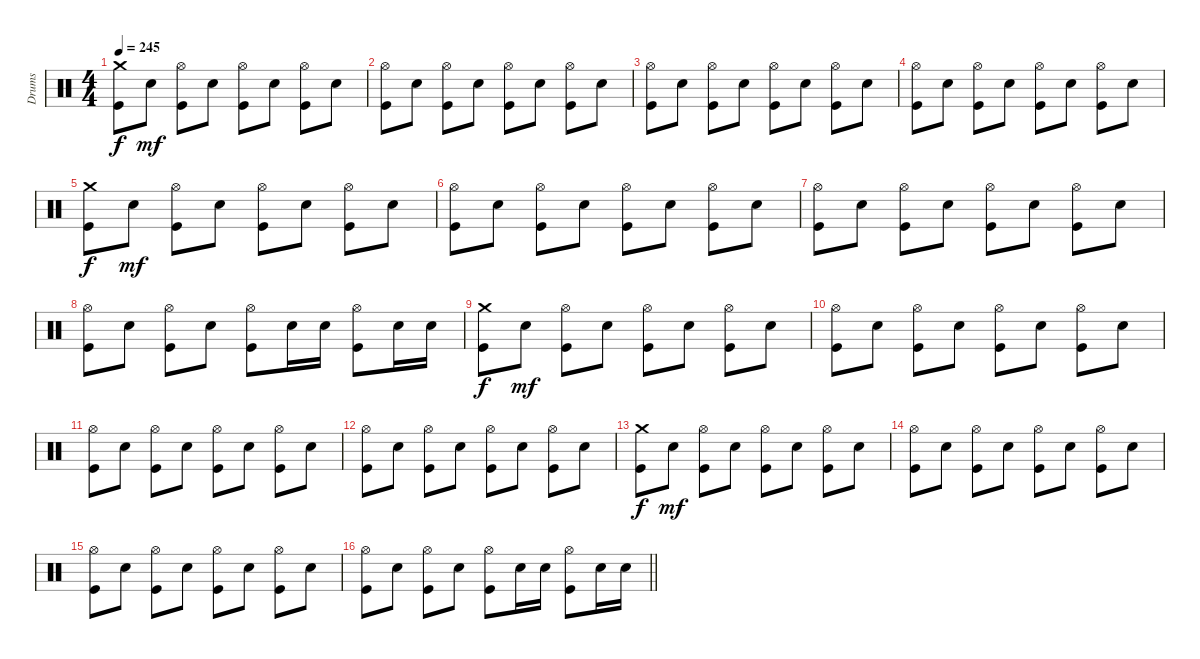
\track ("Drums" "Drums") {instrument percussion}
\staff {score}
\articulation defaults
\ts (4 4)
\tempo 245
\clef neutral
\ks c
("Crash medium (hit)" "Kick (hit)").8{dy f} "Snare (hit) 2".8{dy mf} ("Hi-Hat (open)" "Kick (hit)").8 "Snare (hit) 2".8 ("Hi-Hat (open)" "Kick (hit)").8 "Snare (hit) 2".8 ("Hi-Hat (open)" "Kick (hit)").8 "Snare (hit) 2".8 |
("Hi-Hat (open)" "Kick (hit)").8 "Snare (hit) 2".8 ("Hi-Hat (open)" "Kick (hit)").8 "Snare (hit) 2".8 ("Hi-Hat (open)" "Kick (hit)").8 "Snare (hit) 2".8 ("Hi-Hat (open)" "Kick (hit)").8 "Snare (hit) 2".8 |
("Hi-Hat (open)" "Kick (hit)").8 "Snare (hit) 2".8 ("Hi-Hat (open)" "Kick (hit)").8 "Snare (hit) 2".8 ("Hi-Hat (open)" "Kick (hit)").8 "Snare (hit) 2".8 ("Hi-Hat (open)" "Kick (hit)").8 "Snare (hit) 2".8 |
("Hi-Hat (open)" "Kick (hit)").8 "Snare (hit) 2".8 ("Hi-Hat (open)" "Kick (hit)").8 "Snare (hit) 2".8 ("Hi-Hat (open)" "Kick (hit)").8 "Snare (hit) 2".8 ("Hi-Hat (open)" "Kick (hit)").8 "Snare (hit) 2".8 |
("Crash medium (hit)" "Kick (hit)").8{dy f} "Snare (hit) 2".8{dy mf} ("Hi-Hat (open)" "Kick (hit)").8 "Snare (hit) 2".8 ("Hi-Hat (open)" "Kick (hit)").8 "Snare (hit) 2".8 ("Hi-Hat (open)" "Kick (hit)").8 "Snare (hit) 2".8 |
("Hi-Hat (open)" "Kick (hit)").8 "Snare (hit) 2".8 ("Hi-Hat (open)" "Kick (hit)").8 "Snare (hit) 2".8 ("Hi-Hat (open)" "Kick (hit)").8 "Snare (hit) 2".8 ("Hi-Hat (open)" "Kick (hit)").8 "Snare (hit) 2".8 |
("Hi-Hat (open)" "Kick (hit)").8 "Snare (hit) 2".8 ("Hi-Hat (open)" "Kick (hit)").8 "Snare (hit) 2".8 ("Hi-Hat (open)" "Kick (hit)").8 "Snare (hit) 2".8 ("Hi-Hat (open)" "Kick (hit)").8 "Snare (hit) 2".8 |
("Hi-Hat (open)" "Kick (hit)").8 "Snare (hit) 2".8 ("Hi-Hat (open)" "Kick (hit)").8 "Snare (hit) 2".8 ("Hi-Hat (open)" "Kick (hit)").8 "Snare (hit) 2".16 "Snare (hit) 2".16 ("Hi-Hat (open)" "Kick (hit)").8 "Snare (hit) 2".16 "Snare (hit) 2".16 |
("Crash medium (hit)" "Kick (hit)").8{dy f} "Snare (hit) 2".8{dy mf} ("Hi-Hat (open)" "Kick (hit)").8 "Snare (hit) 2".8 ("Hi-Hat (open)" "Kick (hit)").8 "Snare (hit) 2".8 ("Hi-Hat (open)" "Kick (hit)").8 "Snare (hit) 2".8 |
("Hi-Hat (open)" "Kick (hit)").8 "Snare (hit) 2".8 ("Hi-Hat (open)" "Kick (hit)").8 "Snare (hit) 2".8 ("Hi-Hat (open)" "Kick (hit)").8 "Snare (hit) 2".8 ("Hi-Hat (open)" "Kick (hit)").8 "Snare (hit) 2".8 |
("Hi-Hat (open)" "Kick (hit)").8 "Snare (hit) 2".8 ("Hi-Hat (open)" "Kick (hit)").8 "Snare (hit) 2".8 ("Hi-Hat (open)" "Kick (hit)").8 "Snare (hit) 2".8 ("Hi-Hat (open)" "Kick (hit)").8 "Snare (hit) 2".8 |
("Hi-Hat (open)" "Kick (hit)").8 "Snare (hit) 2".8 ("Hi-Hat (open)" "Kick (hit)").8 "Snare (hit) 2".8 ("Hi-Hat (open)" "Kick (hit)").8 "Snare (hit) 2".8 ("Hi-Hat (open)" "Kick (hit)").8 "Snare (hit) 2".8 |
("Crash medium (hit)" "Kick (hit)").8{dy f} "Snare (hit) 2".8{dy mf} ("Hi-Hat (open)" "Kick (hit)").8 "Snare (hit) 2".8 ("Hi-Hat (open)" "Kick (hit)").8 "Snare (hit) 2".8 ("Hi-Hat (open)" "Kick (hit)").8 "Snare (hit) 2".8 |
("Hi-Hat (open)" "Kick (hit)").8 "Snare (hit) 2".8 ("Hi-Hat (open)" "Kick (hit)").8 "Snare (hit) 2".8 ("Hi-Hat (open)" "Kick (hit)").8 "Snare (hit) 2".8 ("Hi-Hat (open)" "Kick (hit)").8 "Snare (hit) 2".8 |
("Hi-Hat (open)" "Kick (hit)").8 "Snare (hit) 2".8 ("Hi-Hat (open)" "Kick (hit)").8 "Snare (hit) 2".8 ("Hi-Hat (open)" "Kick (hit)").8 "Snare (hit) 2".8 ("Hi-Hat (open)" "Kick (hit)").8 "Snare (hit) 2".8 |
\barLineRight lightlight
("Hi-Hat (open)" "Kick (hit)").8 "Snare (hit) 2".8 ("Hi-Hat (open)" "Kick (hit)").8 "Snare (hit) 2".8 ("Hi-Hat (open)" "Kick (hit)").8 "Snare (hit) 2".16 "Snare (hit) 2".16 ("Hi-Hat (open)" "Kick (hit)").8 "Snare (hit) 2".16 "Snare (hit) 2".16
